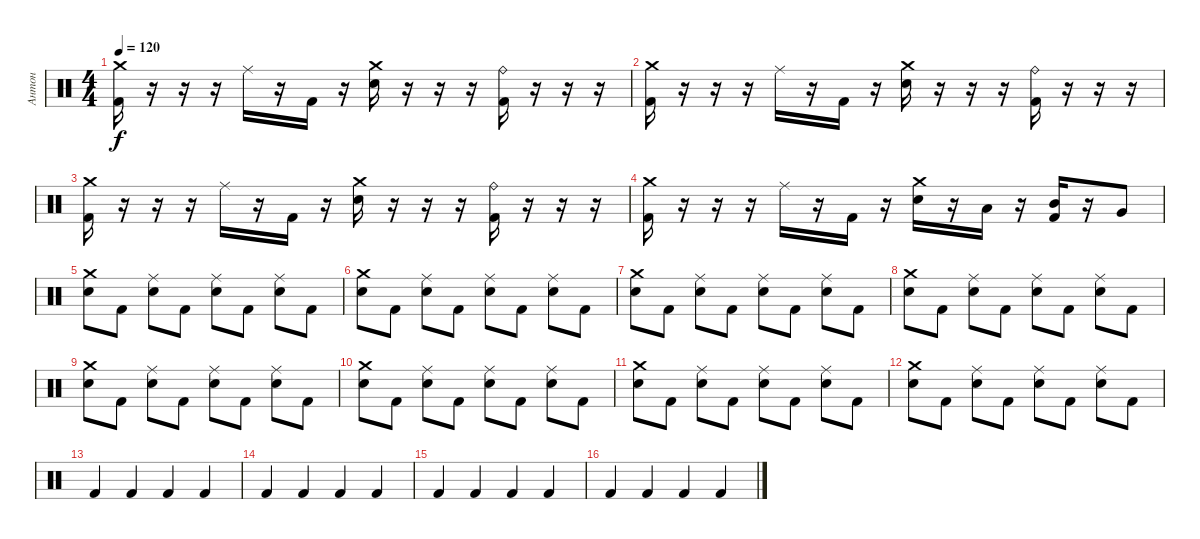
\track ("Антон" "Антон") {instrument percussion}
\staff {score}
\articulation defaults
\ts (4 4)
\tempo 120
\clef neutral
\ks c
("Crash medium (hit)" "Kick (hit) 2").16{dy f} r.16 r.16 r.16 "Ride (middle)".16 r.16 "Kick (hit) 2".16 r.16 ("Crash medium (hit)" "Electric Snare (hit)").16 r.16 r.16 r.16 ("Ride (bell)" "Kick (hit) 2").16 r.16 r.16 r.16 |
("Crash medium (hit)" "Kick (hit) 2").16 r.16 r.16 r.16 "Ride (middle)".16 r.16 "Kick (hit) 2".16 r.16 ("Crash medium (hit)" "Electric Snare (hit)").16 r.16 r.16 r.16 ("Ride (bell)" "Kick (hit) 2").16 r.16 r.16 r.16 |
("Crash medium (hit)" "Kick (hit) 2").16 r.16 r.16 r.16 "Ride (middle)".16 r.16 "Kick (hit) 2".16 r.16 ("Crash medium (hit)" "Electric Snare (hit)").16 r.16 r.16 r.16 ("Ride (bell)" "Kick (hit) 2").16 r.16 r.16 r.16 |
("Crash medium (hit)" "Kick (hit) 2").16 r.16 r.16 r.16 "Ride (middle)".16 r.16 "Kick (hit) 2".16 r.16 ("Crash medium (hit)" "Electric Snare (hit)").16 r.16 "Low Tom (hit)".16 r.16 ("Mid Tom (hit)" "Kick (hit) 2").16 r.16 "Very Low Tom (hit)".8 |
("Crash medium (hit)" "Electric Snare (hit)").8 "Kick (hit) 2".8 ("Ride (middle)" "Electric Snare (hit)").8 "Kick (hit) 2".8 ("Ride (middle)" "Electric Snare (hit)").8 "Kick (hit) 2".8 ("Ride (middle)" "Electric Snare (hit)").8 "Kick (hit) 2".8 |
("Crash medium (hit)" "Electric Snare (hit)").8 "Kick (hit) 2".8 ("Ride (middle)" "Electric Snare (hit)").8 "Kick (hit) 2".8 ("Ride (middle)" "Electric Snare (hit)").8 "Kick (hit) 2".8 ("Ride (middle)" "Electric Snare (hit)").8 "Kick (hit) 2".8 |
("Crash medium (hit)" "Electric Snare (hit)").8 "Kick (hit) 2".8 ("Ride (middle)" "Electric Snare (hit)").8 "Kick (hit) 2".8 ("Ride (middle)" "Electric Snare (hit)").8 "Kick (hit) 2".8 ("Ride (middle)" "Electric Snare (hit)").8 "Kick (hit) 2".8 |
("Crash medium (hit)" "Electric Snare (hit)").8 "Kick (hit) 2".8 ("Ride (middle)" "Electric Snare (hit)").8 "Kick (hit) 2".8 ("Ride (middle)" "Electric Snare (hit)").8 "Kick (hit) 2".8 ("Ride (middle)" "Electric Snare (hit)").8 "Kick (hit) 2".8 |
("Crash medium (hit)" "Electric Snare (hit)").8 "Kick (hit) 2".8 ("Ride (middle)" "Electric Snare (hit)").8 "Kick (hit) 2".8 ("Ride (middle)" "Electric Snare (hit)").8 "Kick (hit) 2".8 ("Ride (middle)" "Electric Snare (hit)").8 "Kick (hit) 2".8 |
("Crash medium (hit)" "Electric Snare (hit)").8 "Kick (hit) 2".8 ("Ride (middle)" "Electric Snare (hit)").8 "Kick (hit) 2".8 ("Ride (middle)" "Electric Snare (hit)").8 "Kick (hit) 2".8 ("Ride (middle)" "Electric Snare (hit)").8 "Kick (hit) 2".8 |
("Crash medium (hit)" "Electric Snare (hit)").8 "Kick (hit) 2".8 ("Ride (middle)" "Electric Snare (hit)").8 "Kick (hit) 2".8 ("Ride (middle)" "Electric Snare (hit)").8 "Kick (hit) 2".8 ("Ride (middle)" "Electric Snare (hit)").8 "Kick (hit) 2".8 |
("Crash medium (hit)" "Electric Snare (hit)").8 "Kick (hit) 2".8 ("Ride (middle)" "Electric Snare (hit)").8 "Kick (hit) 2".8 ("Ride (middle)" "Electric Snare (hit)").8 "Kick (hit) 2".8 ("Ride (middle)" "Electric Snare (hit)").8 "Kick (hit) 2".8 |
"Kick (hit) 2".4 "Kick (hit) 2".4 "Kick (hit) 2".4 "Kick (hit) 2".4 |
"Kick (hit) 2".4 "Kick (hit) 2".4 "Kick (hit) 2".4 "Kick (hit) 2".4 |
"Kick (hit) 2".4 "Kick (hit) 2".4 "Kick (hit) 2".4 "Kick (hit) 2".4 |
"Kick (hit) 2".4 "Kick (hit) 2".4 "Kick (hit) 2".4 "Kick (hit) 2".4
